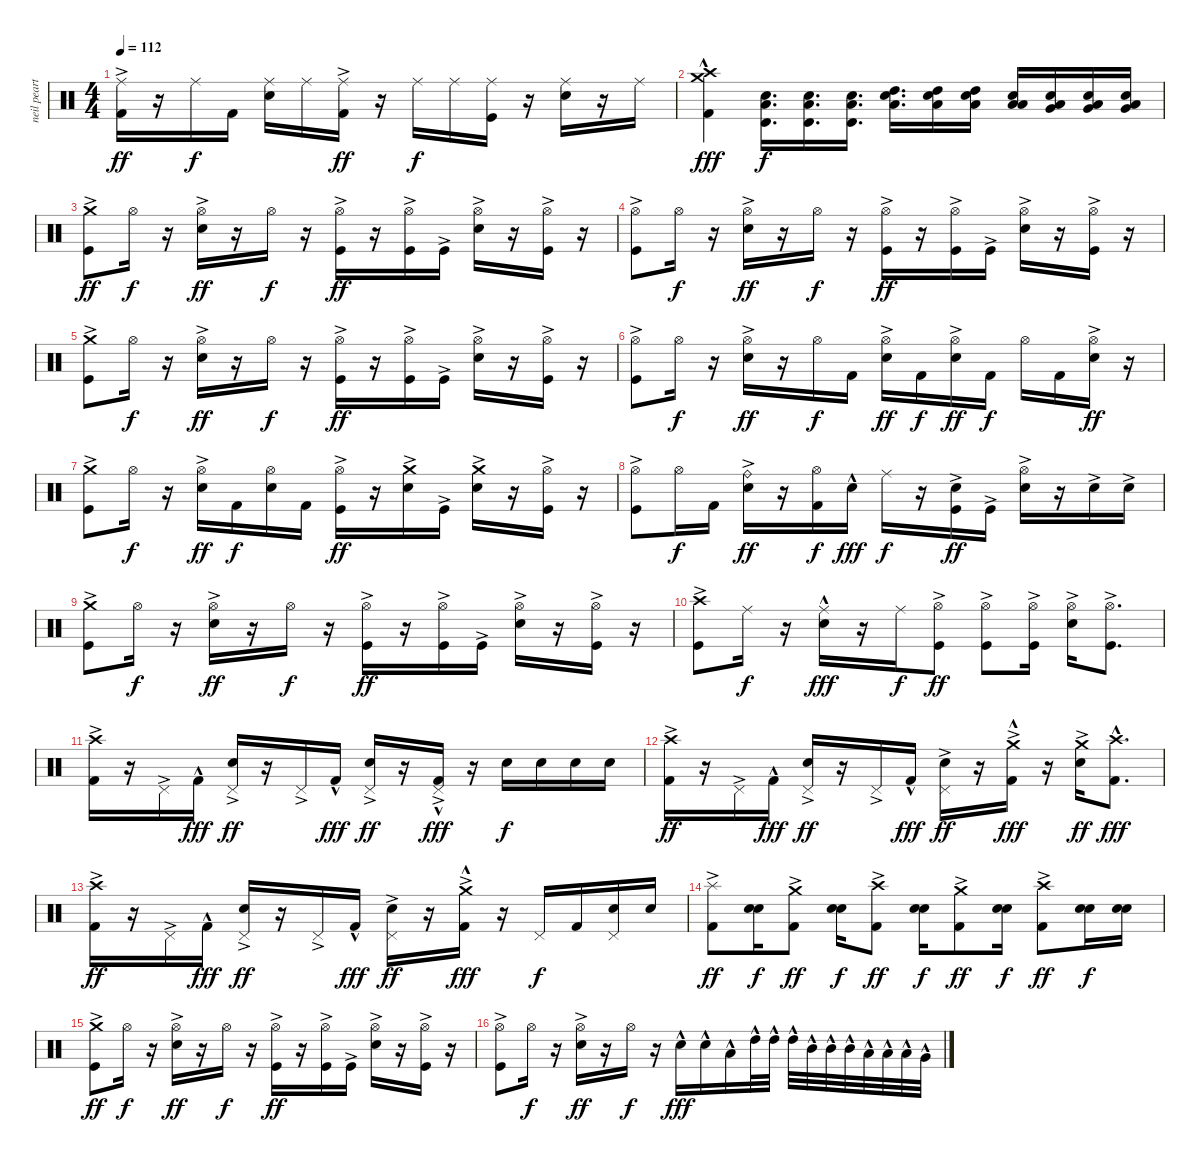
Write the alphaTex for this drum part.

\track ("neil peart" "neil peart") {instrument percussion}
\staff {score}
\articulation defaults
\ts (4 4)
\tempo 112
\clef neutral
\ks c
("Ride (middle)" "Kick (hit) 2"{ac}).16{dy ff} r.16 "Ride (middle)".16{dy f} "Kick (hit) 2".16 ("Ride (middle)" "Electric Snare (hit)").16 "Ride (middle)".16 ("Ride (middle)" "Kick (hit) 2"{ac}).16{dy ff} r.16 "Ride (middle)".16{dy f} "Ride (middle)".16 ("Ride (middle)" "Kick (hit)").16 r.16 ("Ride (middle)" "Electric Snare (hit)").16 r.16 "Ride (middle)".16 |
("Crash high (hit)" "Crash medium (hit)" "Kick (hit) 2"{hac}).4{dy fff} ("Timbale high (hit)" "Low Floor Tom (hit)" "Electric Snare (hit)").16{d dy f} ("Timbale high (hit)" "Low Floor Tom (hit)" "Electric Snare (hit)").16{d} ("Timbale high (hit)" "Low Floor Tom (hit)" "Electric Snare (hit)").16{d} ("High Tom (hit)" "Low Floor Tom (hit)" "Electric Snare (hit)").16{d} ("High Tom (hit)" "Low Floor Tom (hit)" "Electric Snare (hit)").16 ("High Tom (hit)" "Low Floor Tom (hit)" "Electric Snare (hit)").16 ("Low Tom (hit)" "Low Floor Tom (hit)" "Electric Snare (hit)").16 ("Very Low Tom (hit)" "Low Floor Tom (hit)" "Electric Snare (hit)").16 ("Very Low Tom (hit)" "Low Floor Tom (hit)" "Electric Snare (hit)").16 ("Very Low Tom (hit)" "Low Floor Tom (hit)" "Electric Snare (hit)").16 |
("Crash medium (hit)" "Kick (hit)"{ac}).8{dy ff} "Hi-Hat (open)".16{dy f} r.16 ("Hi-Hat (open)" "Electric Snare (hit)"{ac}).16{dy ff} r.16 "Hi-Hat (open)".16{dy f} r.16 ("Hi-Hat (open)" "Kick (hit)"{ac}).16{dy ff} r.16 ("Hi-Hat (open)" "Kick (hit)"{ac}).16 "Kick (hit)"{ac}.16 ("Hi-Hat (open)" "Electric Snare (hit)"{ac}).16 r.16 ("Hi-Hat (open)" "Kick (hit)"{ac}).16 r.16 |
("Hi-Hat (open)" "Kick (hit)"{ac}).8 "Hi-Hat (open)".16{dy f} r.16 ("Hi-Hat (open)" "Electric Snare (hit)"{ac}).16{dy ff} r.16 "Hi-Hat (open)".16{dy f} r.16 ("Hi-Hat (open)" "Kick (hit)"{ac}).16{dy ff} r.16 ("Hi-Hat (open)" "Kick (hit)"{ac}).16 "Kick (hit)"{ac}.16 ("Hi-Hat (open)" "Electric Snare (hit)"{ac}).16 r.16 ("Hi-Hat (open)" "Kick (hit)"{ac}).16 r.16 |
("Crash medium (hit)" "Kick (hit)"{ac}).8 "Hi-Hat (open)".16{dy f} r.16 ("Hi-Hat (open)" "Electric Snare (hit)"{ac}).16{dy ff} r.16 "Hi-Hat (open)".16{dy f} r.16 ("Hi-Hat (open)" "Kick (hit)"{ac}).16{dy ff} r.16 ("Hi-Hat (open)" "Kick (hit)"{ac}).16 "Kick (hit)"{ac}.16 ("Hi-Hat (open)" "Electric Snare (hit)"{ac}).16 r.16 ("Hi-Hat (open)" "Kick (hit)"{ac}).16 r.16 |
("Hi-Hat (open)" "Kick (hit)"{ac}).8 "Hi-Hat (open)".16{dy f} r.16 ("Hi-Hat (open)" "Electric Snare (hit)"{ac}).16{dy ff} r.16 "Hi-Hat (open)".16{dy f} "Kick (hit) 2".16 ("Hi-Hat (open)" "Electric Snare (hit)"{ac}).16{dy ff} "Kick (hit) 2".16{dy f} ("Hi-Hat (open)" "Electric Snare (hit)"{ac}).16{dy ff} "Kick (hit) 2".16{dy f} "Hi-Hat (open)".16 "Kick (hit) 2".16 ("Hi-Hat (open)" "Electric Snare (hit)"{ac}).16{dy ff} r.16 |
("Crash medium (hit)" "Kick (hit)"{ac}).8 "Hi-Hat (open)".16{dy f} r.16 ("Hi-Hat (open)" "Electric Snare (hit)"{ac}).16{dy ff} "Kick (hit) 2".16{dy f} ("Hi-Hat (open)" "Electric Snare (hit)").16 "Kick (hit) 2".16 ("Hi-Hat (open)" "Kick (hit)"{ac}).16{dy ff} r.16 ("Crash medium (hit)" "Electric Snare (hit)"{ac}).16 "Kick (hit)"{ac}.16 ("Crash medium (hit)" "Electric Snare (hit)"{ac}).16 r.16 ("Hi-Hat (open)" "Kick (hit)"{ac}).16 r.16 |
("Hi-Hat (open)" "Kick (hit)"{ac}).8 "Hi-Hat (open)".16{dy f} "Kick (hit) 2".16 ("Ride (bell)" "Electric Snare (hit)"{ac}).16{dy ff} r.16 ("Hi-Hat (open)" "Kick (hit) 2").16{dy f} "Electric Snare (hit)"{hac}.16{dy fff} "Ride (middle)".16{dy f} r.16 ("Electric Snare (hit)" "Kick (hit)"{ac}).16{dy ff} "Kick (hit)"{ac}.16 ("Hi-Hat (open)" "Electric Snare (hit)"{ac}).16 r.16 "Electric Snare (hit)"{ac}.16 "Electric Snare (hit)"{ac}.16 |
("Crash medium (hit)" "Kick (hit)"{ac}).8 "Hi-Hat (open)".16{dy f} r.16 ("Hi-Hat (open)" "Electric Snare (hit)"{ac}).16{dy ff} r.16 "Hi-Hat (open)".16{dy f} r.16 ("Hi-Hat (open)" "Kick (hit)"{ac}).16{dy ff} r.16 ("Hi-Hat (open)" "Kick (hit)"{ac}).16 "Kick (hit)"{ac}.16 ("Hi-Hat (open)" "Electric Snare (hit)"{ac}).16 r.16 ("Hi-Hat (open)" "Kick (hit)"{ac}).16 r.16 |
("Crash high (hit)" "Kick (hit)"{ac}).8 "Ride (middle)".16{dy f} r.16 ("Ride (middle)" "Electric Snare (hit)"{hac}).16{dy fff} r.16 "Ride (middle)".16{dy f} ("Hi-Hat (open)" "Kick (hit)"{ac}).8{dy ff} ("Hi-Hat (open)" "Kick (hit)"{ac}).8 ("Hi-Hat (open)" "Kick (hit)"{ac}).16 ("Hi-Hat (open)" "Electric Snare (hit)"{ac}).16 ("Hi-Hat (open)" "Kick (hit)"{ac}).8{d} |
("Crash high (hit)" "Kick (hit) 2"{ac}).16 r.16 "Pedal Hi-Hat (hit)"{ac}.16 "Kick (hit) 2"{hac}.16{dy fff} ("Pedal Hi-Hat (hit)"{ac} "Electric Snare (hit)").16{dy ff} r.16 "Pedal Hi-Hat (hit)"{ac}.16 "Kick (hit) 2"{hac}.16{dy fff} ("Pedal Hi-Hat (hit)"{ac} "Electric Snare (hit)").16{dy ff} r.16 ("Pedal Hi-Hat (hit)"{ac} "Kick (hit) 2"{hac}).16{dy fff} r.16 "Electric Snare (hit)".16{dy f} "Electric Snare (hit)".16 "Electric Snare (hit)".16 "Electric Snare (hit)".16 |
("Crash high (hit)" "Kick (hit) 2"{ac}).16{dy ff} r.16 "Pedal Hi-Hat (hit)"{ac}.16 "Kick (hit) 2"{hac}.16{dy fff} ("Pedal Hi-Hat (hit)"{ac} "Electric Snare (hit)").16{dy ff} r.16 "Pedal Hi-Hat (hit)"{ac}.16 "Kick (hit) 2"{hac}.16{dy fff} ("Pedal Hi-Hat (hit)"{ac} "Electric Snare (hit)").16{dy ff} r.16 ("Crash medium (hit)"{ac} "Kick (hit) 2"{hac}).16{dy fff} r.16 ("Crash medium (hit)" "Electric Snare (hit)"{ac}).16{dy ff} ("Crash high (hit)" "Kick (hit) 2"{hac}).8{d dy fff} |
("Crash high (hit)" "Kick (hit) 2"{ac}).16{dy ff} r.16 "Pedal Hi-Hat (hit)"{ac}.16 "Kick (hit) 2"{hac}.16{dy fff} ("Pedal Hi-Hat (hit)"{ac} "Electric Snare (hit)").16{dy ff} r.16 "Pedal Hi-Hat (hit)"{ac}.16 "Kick (hit) 2"{hac}.16{dy fff} ("Pedal Hi-Hat (hit)"{ac} "Electric Snare (hit)").16{dy ff} r.16 ("Crash medium (hit)"{ac} "Kick (hit) 2"{hac}).16{dy fff} r.16 "Pedal Hi-Hat (hit)".16{dy f} "Kick (hit) 2".16 ("Pedal Hi-Hat (hit)" "Electric Snare (hit)").16 "Electric Snare (hit)".16 |
("Splash (hit)" "Kick (hit) 2"{ac}).8{dy ff} ("Electric Snare (hit)" "Electric Snare (hit)").16{dy f} ("Crash medium (hit)" "Kick (hit) 2"{ac}).8{dy ff} ("Electric Snare (hit)" "Electric Snare (hit)").16{dy f} ("Crash high (hit)" "Kick (hit) 2"{ac}).8{dy ff} ("Electric Snare (hit)" "Electric Snare (hit)").16{dy f} ("Crash medium (hit)" "Kick (hit) 2"{ac}).8{dy ff} ("Electric Snare (hit)" "Electric Snare (hit)").16{dy f} ("Crash high (hit)" "Kick (hit) 2"{ac}).8{dy ff} ("Electric Snare (hit)" "Electric Snare (hit)").16{dy f} ("Electric Snare (hit)" "Electric Snare (hit)").16 |
("Crash medium (hit)" "Kick (hit)"{ac}).8{dy ff} "Hi-Hat (open)".16{dy f} r.16 ("Hi-Hat (open)" "Electric Snare (hit)"{ac}).16{dy ff} r.16 "Hi-Hat (open)".16{dy f} r.16 ("Hi-Hat (open)" "Kick (hit)"{ac}).16{dy ff} r.16 ("Hi-Hat (open)" "Kick (hit)"{ac}).16 "Kick (hit)"{ac}.16 ("Hi-Hat (open)" "Electric Snare (hit)"{ac}).16 r.16 ("Hi-Hat (open)" "Kick (hit)"{ac}).16 r.16 |
("Hi-Hat (open)" "Kick (hit)"{ac}).8 "Hi-Hat (open)".16{dy f} r.16 ("Hi-Hat (open)" "Electric Snare (hit)"{ac}).16{dy ff} r.16 "Hi-Hat (open)".16{dy f} r.16 "Electric Snare (hit)"{hac}.16{dy fff} "Electric Snare (hit)"{hac}.16 "Low Floor Tom (hit)"{hac}.16 "High Tom (hit)"{hac}.32 "High Tom (hit)"{hac}.32 "High Tom (hit)"{hac}.32 "Mid Tom (hit)"{hac}.32 "Mid Tom (hit)"{hac}.32 "Mid Tom (hit)"{hac}.32 "Low Tom (hit)"{hac}.32 "Low Tom (hit)"{hac}.32 "Low Tom (hit)"{hac}.32 "Very Low Tom (hit)"{hac}.32
